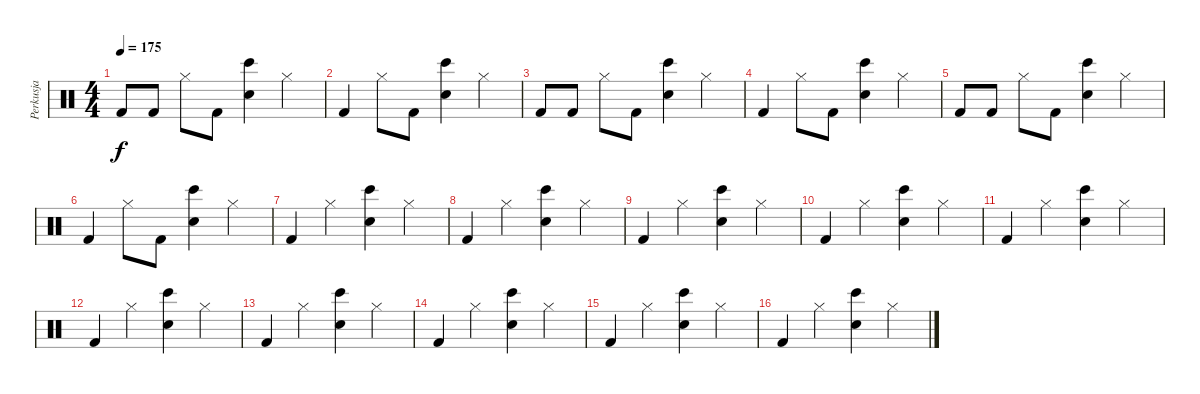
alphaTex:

\track ("Perkusja" "Perkusja") {instrument percussion}
\staff {score}
\articulation defaults
\ts (4 4)
\tempo 175
\clef neutral
\ks c "Kick (hit) 2".8{dy f} "Kick (hit) 2".8 "Hi-Hat (closed)".8 "Kick (hit) 2".8
("Bongo High (hit)" "Snare (hit) 2").4 "Hi-Hat (closed)".4 |
"Kick (hit) 2".4 "Hi-Hat (closed)".8 "Kick (hit) 2".8 ("Bongo High (hit)" "Snare (hit) 2").4 "Hi-Hat (closed)".4 |
"Kick (hit) 2".8 "Kick (hit) 2".8 "Hi-Hat (closed)".8 "Kick (hit) 2".8 ("Bongo High (hit)" "Snare (hit) 2").4 "Hi-Hat (closed)".4 |
"Kick (hit) 2".4 "Hi-Hat (closed)".8 "Kick (hit) 2".8 ("Bongo High (hit)" "Snare (hit) 2").4 "Hi-Hat (closed)".4 |
"Kick (hit) 2".8 "Kick (hit) 2".8 "Hi-Hat (closed)".8 "Kick (hit) 2".8 ("Bongo High (hit)" "Snare (hit) 2").4 "Hi-Hat (closed)".4 |
"Kick (hit) 2".4 "Hi-Hat (closed)".8 "Kick (hit) 2".8 ("Bongo High (hit)" "Snare (hit) 2").4 "Hi-Hat (closed)".4 |
"Kick (hit) 2".4 "Hi-Hat (closed)".4 ("Snare (hit) 2" "Bongo High (hit)").4 "Hi-Hat (closed)".4 |
"Kick (hit) 2".4 "Hi-Hat (closed)".4 ("Snare (hit) 2" "Bongo High (hit)").4 "Hi-Hat (closed)".4 |
"Kick (hit) 2".4 "Hi-Hat (closed)".4 ("Snare (hit) 2" "Bongo High (hit)").4 "Hi-Hat (closed)".4 |
"Kick (hit) 2".4 "Hi-Hat (closed)".4 ("Snare (hit) 2" "Bongo High (hit)").4 "Hi-Hat (closed)".4 |
"Kick (hit) 2".4 "Hi-Hat (closed)".4 ("Snare (hit) 2" "Bongo High (hit)").4 "Hi-Hat (closed)".4 |
"Kick (hit) 2".4 "Hi-Hat (closed)".4 ("Snare (hit) 2" "Bongo High (hit)").4 "Hi-Hat (closed)".4 |
"Kick (hit) 2".4 "Hi-Hat (closed)".4 ("Snare (hit) 2" "Bongo High (hit)").4 "Hi-Hat (closed)".4 |
"Kick (hit) 2".4 "Hi-Hat (closed)".4 ("Snare (hit) 2" "Bongo High (hit)").4 "Hi-Hat (closed)".4 |
"Kick (hit) 2".4 "Hi-Hat (closed)".4 ("Snare (hit) 2" "Bongo High (hit)").4 "Hi-Hat (closed)".4 |
"Kick (hit) 2".4 "Hi-Hat (closed)".4 ("Snare (hit) 2" "Bongo High (hit)").4 "Hi-Hat (closed)".4
